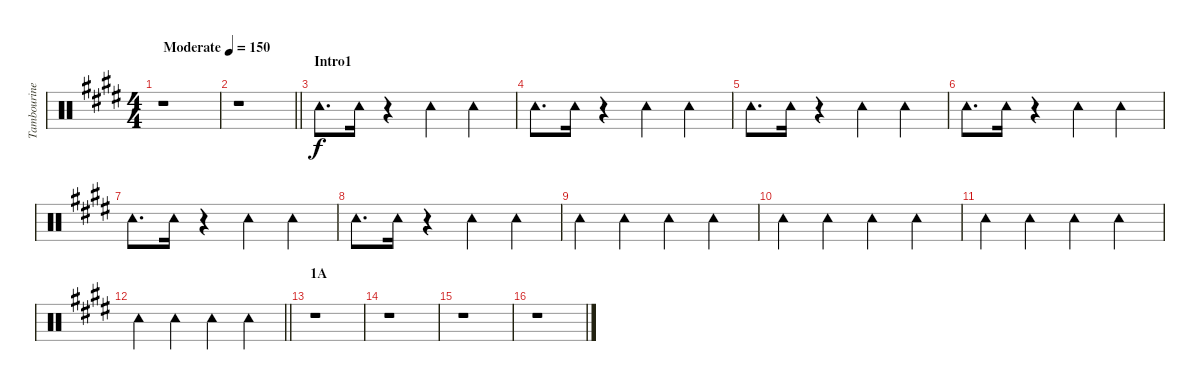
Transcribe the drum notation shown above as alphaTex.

\track ("Tambourine" "Tambourine") {instrument percussion}
\staff {score}
\articulation defaults
\ts (4 4)
\tempo (150 "Moderate")
\clef neutral
\ks e
r.1{dy f} |
\barLineRight lightlight
r.1 |
\section ("" "Intro1")
"Tambourine (hit)".8{d} "Tambourine (hit)".16 r.4 "Tambourine (hit)".4 "Tambourine (hit)".4 |
"Tambourine (hit)".8{d} "Tambourine (hit)".16 r.4 "Tambourine (hit)".4 "Tambourine (hit)".4 |
"Tambourine (hit)".8{d} "Tambourine (hit)".16 r.4 "Tambourine (hit)".4 "Tambourine (hit)".4 |
"Tambourine (hit)".8{d} "Tambourine (hit)".16 r.4 "Tambourine (hit)".4 "Tambourine (hit)".4 |
"Tambourine (hit)".8{d} "Tambourine (hit)".16 r.4 "Tambourine (hit)".4 "Tambourine (hit)".4 |
"Tambourine (hit)".8{d} "Tambourine (hit)".16 r.4 "Tambourine (hit)".4 "Tambourine (hit)".4 |
"Tambourine (hit)".4 "Tambourine (hit)".4 "Tambourine (hit)".4 "Tambourine (hit)".4 |
"Tambourine (hit)".4 "Tambourine (hit)".4 "Tambourine (hit)".4 "Tambourine (hit)".4 |
"Tambourine (hit)".4 "Tambourine (hit)".4 "Tambourine (hit)".4 "Tambourine (hit)".4 |
\barLineRight lightlight "Tambourine (hit)".4 "Tambourine (hit)".4 "Tambourine (hit)".4 "Tambourine (hit)".4
|
\section ("" "1A")
r.1 |
r.1 |
r.1 |
r.1
